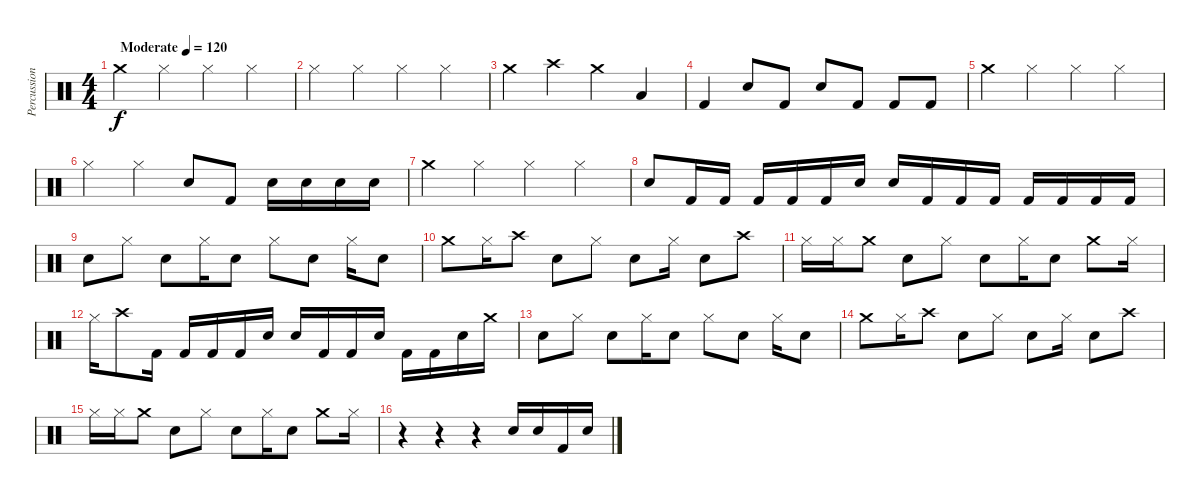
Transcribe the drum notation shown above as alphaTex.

\track ("Percussioni" "Percussion") {instrument percussion}
\staff {score}
\articulation defaults
\ts (4 4)
\tempo (120 "Moderate")
\clef neutral
\ks c "Crash medium (hit)".4{dy f} "Hi-Hat (closed)".4 "Hi-Hat (closed)".4 "Hi-Hat (closed)".4
|
"Hi-Hat (closed)".4 "Hi-Hat (closed)".4 "Hi-Hat (closed)".4 "Hi-Hat (closed)".4 |
"Crash medium (hit)".4 "Crash high (hit)".4 "Crash medium (hit)".4 "Low Floor Tom (hit)".4 |
"Kick (hit) 2".4 "Snare (hit) 2".8 "Kick (hit) 2".8 "Snare (hit) 2".8 "Kick (hit) 2".8 "Kick (hit) 2".8 "Kick (hit) 2".8 |
"Crash medium (hit)".4 "Hi-Hat (closed)".4 "Hi-Hat (closed)".4 "Hi-Hat (closed)".4 |
"Hi-Hat (closed)".4 "Hi-Hat (closed)".4 "Snare (hit) 2".8 "Kick (hit) 2".8 "Snare (hit) 2".16 "Snare (hit) 2".16 "Snare (hit) 2".16 "Snare (hit) 2".16 |
"Crash medium (hit)".4 "Hi-Hat (closed)".4 "Hi-Hat (closed)".4 "Hi-Hat (closed)".4 |
"Snare (hit) 2".8 "Kick (hit) 2".16 "Kick (hit) 2".16 "Kick (hit) 2".16 "Kick (hit) 2".16 "Kick (hit) 2".16 "Snare (hit) 2".16 "Snare (hit) 2".16 "Kick (hit) 2".16 "Kick (hit) 2".16 "Kick (hit) 2".16 "Kick (hit) 2".16 "Kick (hit) 2".16 "Kick (hit) 2".16 "Kick (hit) 2".16 |
"Snare (hit) 2".8 "Hi-Hat (closed)".8 "Snare (hit) 2".8 "Hi-Hat (closed)".16 "Snare (hit) 2".8 "Hi-Hat (closed)".8 "Snare (hit) 2".8 "Hi-Hat (closed)".16 "Snare (hit) 2".8 |
"Crash medium (hit)".8 "Hi-Hat (closed)".16 "Crash high (hit)".8 "Snare (hit) 2".8 "Hi-Hat (closed)".8 "Snare (hit) 2".8 "Hi-Hat (closed)".16 "Snare (hit) 2".8 "Crash high (hit)".8 |
"Hi-Hat (closed)".16 "Hi-Hat (closed)".16 "Crash medium (hit)".8 "Snare (hit) 2".8 "Hi-Hat (closed)".8 "Snare (hit) 2".8 "Hi-Hat (closed)".16 "Snare (hit) 2".8 "Crash medium (hit)".8 "Hi-Hat (closed)".16 |
"Hi-Hat (closed)".16 "Crash high (hit)".8 "Kick (hit) 2".16 "Kick (hit) 2".16 "Kick (hit) 2".16 "Kick (hit) 2".16 "Snare (hit) 2".16 "Snare (hit) 2".16 "Kick (hit) 2".16 "Kick (hit) 2".16 "Snare (hit) 2".16 "Kick (hit) 2".16 "Kick (hit) 2".16 "Snare (hit) 2".16 "Crash medium (hit)".16 |
"Snare (hit) 2".8 "Hi-Hat (closed)".8 "Snare (hit) 2".8 "Hi-Hat (closed)".16 "Snare (hit) 2".8 "Hi-Hat (closed)".8 "Snare (hit) 2".8 "Hi-Hat (closed)".16 "Snare (hit) 2".8 |
"Crash medium (hit)".8 "Hi-Hat (closed)".16 "Crash high (hit)".8 "Snare (hit) 2".8 "Hi-Hat (closed)".8 "Snare (hit) 2".8 "Hi-Hat (closed)".16 "Snare (hit) 2".8 "Crash high (hit)".8 |
"Hi-Hat (closed)".16 "Hi-Hat (closed)".16 "Crash medium (hit)".8 "Snare (hit) 2".8 "Hi-Hat (closed)".8 "Snare (hit) 2".8 "Hi-Hat (closed)".16 "Snare (hit) 2".8 "Crash medium (hit)".8 "Hi-Hat (closed)".16 |
r.4 r.4 r.4 "Snare (hit) 2".16 "Snare (hit) 2".16 "Kick (hit) 2".16 "Snare (hit) 2".16
